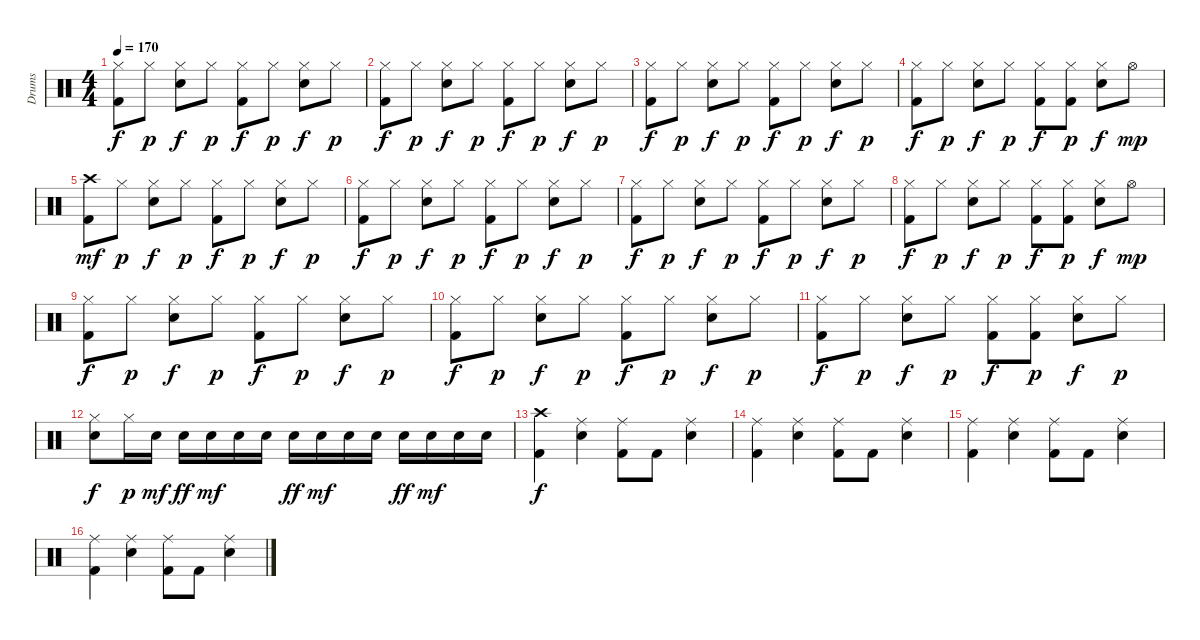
\track ("Drums" "Drums") {instrument percussion}
\staff {score}
\articulation defaults
\ts (4 4)
\tempo 170
\clef neutral
\ks c
("Hi-Hat (closed)" "Kick (hit) 2").8{dy f} "Hi-Hat (closed)".8{dy p} ("Hi-Hat (closed)" "Snare (hit) 2").8{dy f} "Hi-Hat (closed)".8{dy p} ("Hi-Hat (closed)" "Kick (hit) 2").8{dy f} "Hi-Hat (closed)".8{dy p} ("Hi-Hat (closed)" "Snare (hit) 2").8{dy f} "Hi-Hat (closed)".8{dy p} |
("Hi-Hat (closed)" "Kick (hit) 2").8{dy f} "Hi-Hat (closed)".8{dy p} ("Hi-Hat (closed)" "Snare (hit) 2").8{dy f} "Hi-Hat (closed)".8{dy p} ("Hi-Hat (closed)" "Kick (hit) 2").8{dy f} "Hi-Hat (closed)".8{dy p} ("Hi-Hat (closed)" "Snare (hit) 2").8{dy f} "Hi-Hat (closed)".8{dy p} |
("Hi-Hat (closed)" "Kick (hit) 2").8{dy f} "Hi-Hat (closed)".8{dy p} ("Hi-Hat (closed)" "Snare (hit) 2").8{dy f} "Hi-Hat (closed)".8{dy p} ("Hi-Hat (closed)" "Kick (hit) 2").8{dy f} "Hi-Hat (closed)".8{dy p} ("Hi-Hat (closed)" "Snare (hit) 2").8{dy f} "Hi-Hat (closed)".8{dy p} |
("Hi-Hat (closed)" "Kick (hit) 2").8{dy f} "Hi-Hat (closed)".8{dy p} ("Hi-Hat (closed)" "Snare (hit) 2").8{dy f} "Hi-Hat (closed)".8{dy p} ("Hi-Hat (closed)" "Kick (hit) 2").8{dy f} ("Hi-Hat (closed)" "Kick (hit) 2").8{dy p} ("Hi-Hat (closed)" "Snare (hit) 2").8{dy f} "Hi-Hat (open)".8{dy mp} |
("Crash high (hit)" "Kick (hit) 2").8{dy mf} "Hi-Hat (closed)".8{dy p} ("Hi-Hat (closed)" "Snare (hit) 2").8{dy f} "Hi-Hat (closed)".8{dy p} ("Hi-Hat (closed)" "Kick (hit) 2").8{dy f} "Hi-Hat (closed)".8{dy p} ("Hi-Hat (closed)" "Snare (hit) 2").8{dy f} "Hi-Hat (closed)".8{dy p} |
("Hi-Hat (closed)" "Kick (hit) 2").8{dy f} "Hi-Hat (closed)".8{dy p} ("Hi-Hat (closed)" "Snare (hit) 2").8{dy f} "Hi-Hat (closed)".8{dy p} ("Hi-Hat (closed)" "Kick (hit) 2").8{dy f} "Hi-Hat (closed)".8{dy p} ("Hi-Hat (closed)" "Snare (hit) 2").8{dy f} "Hi-Hat (closed)".8{dy p} |
("Hi-Hat (closed)" "Kick (hit) 2").8{dy f} "Hi-Hat (closed)".8{dy p} ("Hi-Hat (closed)" "Snare (hit) 2").8{dy f} "Hi-Hat (closed)".8{dy p} ("Hi-Hat (closed)" "Kick (hit) 2").8{dy f} "Hi-Hat (closed)".8{dy p} ("Hi-Hat (closed)" "Snare (hit) 2").8{dy f} "Hi-Hat (closed)".8{dy p} |
("Hi-Hat (closed)" "Kick (hit) 2").8{dy f} "Hi-Hat (closed)".8{dy p} ("Hi-Hat (closed)" "Snare (hit) 2").8{dy f} "Hi-Hat (closed)".8{dy p} ("Hi-Hat (closed)" "Kick (hit) 2").8{dy f} ("Hi-Hat (closed)" "Kick (hit) 2").8{dy p} ("Hi-Hat (closed)" "Snare (hit) 2").8{dy f} "Hi-Hat (open)".8{dy mp} |
("Hi-Hat (closed)" "Kick (hit) 2").8{dy f} "Hi-Hat (closed)".8{dy p} ("Hi-Hat (closed)" "Snare (hit) 2").8{dy f} "Hi-Hat (closed)".8{dy p} ("Hi-Hat (closed)" "Kick (hit) 2").8{dy f} "Hi-Hat (closed)".8{dy p} ("Hi-Hat (closed)" "Snare (hit) 2").8{dy f} "Hi-Hat (closed)".8{dy p} |
("Hi-Hat (closed)" "Kick (hit) 2").8{dy f} "Hi-Hat (closed)".8{dy p} ("Hi-Hat (closed)" "Snare (hit) 2").8{dy f} "Hi-Hat (closed)".8{dy p} ("Hi-Hat (closed)" "Kick (hit) 2").8{dy f} "Hi-Hat (closed)".8{dy p} ("Hi-Hat (closed)" "Snare (hit) 2").8{dy f} "Hi-Hat (closed)".8{dy p} |
("Hi-Hat (closed)" "Kick (hit) 2").8{dy f} "Hi-Hat (closed)".8{dy p} ("Hi-Hat (closed)" "Snare (hit) 2").8{dy f} "Hi-Hat (closed)".8{dy p} ("Hi-Hat (closed)" "Kick (hit) 2").8{dy f} ("Hi-Hat (closed)" "Kick (hit) 2").8{dy p} ("Hi-Hat (closed)" "Snare (hit) 2").8{dy f} "Hi-Hat (closed)".8{dy p} |
("Hi-Hat (closed)" "Snare (hit) 2").8{dy f} "Hi-Hat (closed)".16{dy p} "Snare (hit) 2".16{dy mf} "Snare (hit) 2".16{dy ff} "Snare (hit) 2".16{dy mf} "Snare (hit) 2".16 "Snare (hit) 2".16 "Snare (hit) 2".16{dy ff} "Snare (hit) 2".16{dy mf} "Snare (hit) 2".16 "Snare (hit) 2".16 "Snare (hit) 2".16{dy ff} "Snare (hit) 2".16{dy mf} "Snare (hit) 2".16 "Snare (hit) 2".16 |
("Crash high (hit)" "Kick (hit) 2").4{dy f} ("Ride (middle)" "Snare (hit) 2").4 ("Ride (middle)" "Kick (hit) 2").8 "Kick (hit) 2".8 ("Ride (middle)" "Snare (hit) 2").4 |
("Ride (middle)" "Kick (hit) 2").4 ("Ride (middle)" "Snare (hit) 2").4 ("Ride (middle)" "Kick (hit) 2").8 "Kick (hit) 2".8 ("Ride (middle)" "Snare (hit) 2").4 |
("Ride (middle)" "Kick (hit) 2").4 ("Ride (middle)" "Snare (hit) 2").4 ("Ride (middle)" "Kick (hit) 2").8 "Kick (hit) 2".8 ("Ride (middle)" "Snare (hit) 2").4 |
("Ride (middle)" "Kick (hit) 2").4 ("Ride (middle)" "Snare (hit) 2").4 ("Ride (middle)" "Kick (hit) 2").8 "Kick (hit) 2".8 ("Ride (middle)" "Snare (hit) 2").4
